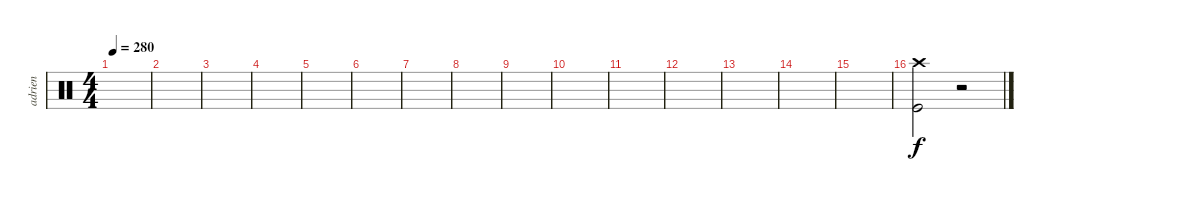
\track ("adrien" "adrien") {instrument percussion}
\staff {score}
\articulation defaults
\ts (4 4)
\tempo 280
\clef neutral
\ks c
|
|
|
|
|
|
|
|
|
|
|
|
|
|
|
("Crash high (hit)" "Kick (hit)").2 r.2
